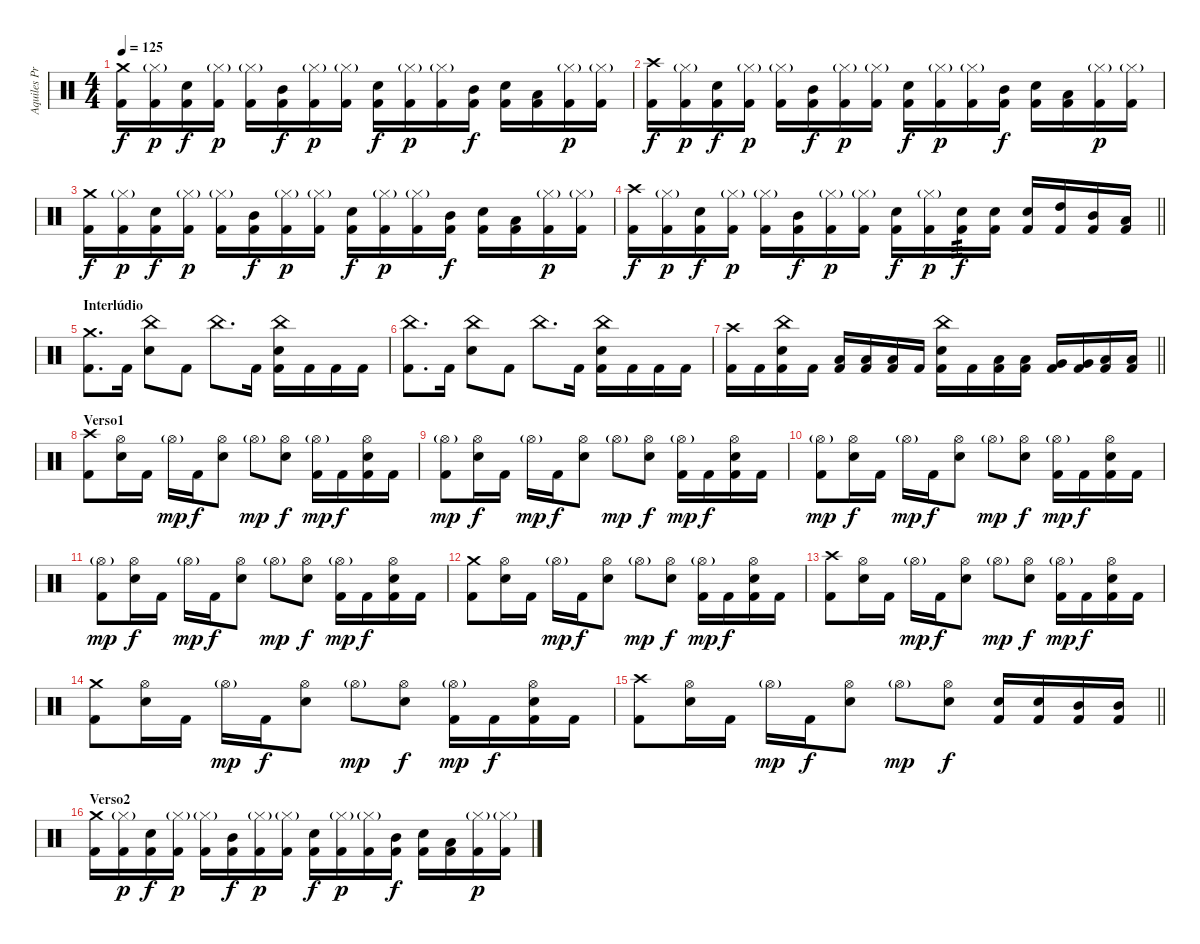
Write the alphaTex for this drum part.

\track ("Aquiles Priester" "Aquiles Pr") {instrument percussion}
\staff {score}
\articulation defaults
\ts (4 4)
\tempo 125
\clef neutral
\ks c
("Crash medium (hit)" "Kick (hit) 2").16{dy f} ("Hi-Hat (closed)"{g} "Kick (hit) 2").16{dy p} ("Electric Snare (hit)" "Kick (hit) 2").16{dy f} ("Hi-Hat (closed)"{g} "Kick (hit) 2").16{dy p} ("Hi-Hat (closed)"{g} "Kick (hit) 2").16 ("Mid Tom (hit)" "Kick (hit) 2").16{dy f} ("Hi-Hat (closed)"{g} "Kick (hit) 2").16{dy p} ("Hi-Hat (closed)"{g} "Kick (hit) 2").16 ("Electric Snare (hit)" "Kick (hit) 2").16{dy f} ("Hi-Hat (closed)"{g} "Kick (hit) 2").16{dy p} ("Hi-Hat (closed)"{g} "Kick (hit) 2").16 ("Mid Tom (hit)" "Kick (hit) 2").16{dy f} ("Electric Snare (hit)" "Kick (hit) 2").16 ("Low Tom (hit)" "Kick (hit) 2").16 ("Hi-Hat (closed)"{g} "Kick (hit) 2").16{dy p} ("Hi-Hat (closed)"{g} "Kick (hit) 2").16 |
("Crash high (hit)" "Kick (hit) 2").16{dy f} ("Hi-Hat (closed)"{g} "Kick (hit) 2").16{dy p} ("Electric Snare (hit)" "Kick (hit) 2").16{dy f} ("Hi-Hat (closed)"{g} "Kick (hit) 2").16{dy p} ("Hi-Hat (closed)"{g} "Kick (hit) 2").16 ("Mid Tom (hit)" "Kick (hit) 2").16{dy f} ("Hi-Hat (closed)"{g} "Kick (hit) 2").16{dy p} ("Hi-Hat (closed)"{g} "Kick (hit) 2").16 ("Electric Snare (hit)" "Kick (hit) 2").16{dy f} ("Hi-Hat (closed)"{g} "Kick (hit) 2").16{dy p} ("Hi-Hat (closed)"{g} "Kick (hit) 2").16 ("Mid Tom (hit)" "Kick (hit) 2").16{dy f} ("Electric Snare (hit)" "Kick (hit) 2").16 ("Low Tom (hit)" "Kick (hit) 2").16 ("Hi-Hat (closed)"{g} "Kick (hit) 2").16{dy p} ("Hi-Hat (closed)"{g} "Kick (hit) 2").16 |
("Crash medium (hit)" "Kick (hit) 2").16{dy f} ("Hi-Hat (closed)"{g} "Kick (hit) 2").16{dy p} ("Electric Snare (hit)" "Kick (hit) 2").16{dy f} ("Hi-Hat (closed)"{g} "Kick (hit) 2").16{dy p} ("Hi-Hat (closed)"{g} "Kick (hit) 2").16 ("Mid Tom (hit)" "Kick (hit) 2").16{dy f} ("Hi-Hat (closed)"{g} "Kick (hit) 2").16{dy p} ("Hi-Hat (closed)"{g} "Kick (hit) 2").16 ("Electric Snare (hit)" "Kick (hit) 2").16{dy f} ("Hi-Hat (closed)"{g} "Kick (hit) 2").16{dy p} ("Hi-Hat (closed)"{g} "Kick (hit) 2").16 ("Mid Tom (hit)" "Kick (hit) 2").16{dy f} ("Electric Snare (hit)" "Kick (hit) 2").16 ("Low Tom (hit)" "Kick (hit) 2").16 ("Hi-Hat (closed)"{g} "Kick (hit) 2").16{dy p} ("Hi-Hat (closed)"{g} "Kick (hit) 2").16 |
\barLineRight lightlight
("Crash high (hit)" "Kick (hit) 2").16{dy f} ("Hi-Hat (closed)"{g} "Kick (hit) 2").16{dy p} ("Electric Snare (hit)" "Kick (hit) 2").16{dy f} ("Hi-Hat (closed)"{g} "Kick (hit) 2").16{dy p} ("Hi-Hat (closed)"{g} "Kick (hit) 2").16 ("Mid Tom (hit)" "Kick (hit) 2").16{dy f} ("Hi-Hat (closed)"{g} "Kick (hit) 2").16{dy p} ("Hi-Hat (closed)"{g} "Kick (hit) 2").16 ("Electric Snare (hit)" "Kick (hit) 2").16{dy f} ("Hi-Hat (closed)"{g} "Kick (hit) 2").16{dy p} ("Electric Snare (hit)" "Kick (hit) 2").16{tp 3 dy f} ("Electric Snare (hit)" "Kick (hit) 2").16 ("Electric Snare (hit)" "Kick (hit) 2").16 ("High Tom (hit)" "Kick (hit) 2").16 ("Mid Tom (hit)" "Kick (hit) 2").16 ("Low Tom (hit)" "Kick (hit) 2").16 |
\section ("" "Interlúdio")
("Crash medium (hit)" "Kick (hit) 2").8{d} "Kick (hit) 2".16 ("China (hit)" "Electric Snare (hit)").8 "Kick (hit) 2".8 "China (hit)".8{d} "Kick (hit) 2".16 ("China (hit)" "Electric Snare (hit)" "Kick (hit) 2").16 "Kick (hit) 2".16 "Kick (hit) 2".16 "Kick (hit) 2".16 |
("China (hit)" "Kick (hit) 2").8{d} "Kick (hit) 2".16 ("China (hit)" "Electric Snare (hit)").8 "Kick (hit) 2".8 "China (hit)".8{d} "Kick (hit) 2".16 ("China (hit)" "Electric Snare (hit)" "Kick (hit) 2").16 "Kick (hit) 2".16 "Kick (hit) 2".16 "Kick (hit) 2".16 |
\barLineRight lightlight
("Crash high (hit)" "Kick (hit) 2").16 "Kick (hit) 2".16 ("China (hit)" "Electric Snare (hit)" "Kick (hit) 2").16 "Kick (hit) 2".16 ("Low Tom (hit)" "Kick (hit) 2").16 ("Low Tom (hit)" "Kick (hit) 2").16 ("Low Tom (hit)" "Kick (hit) 2").16 "Kick (hit) 2".16 ("China (hit)" "Electric Snare (hit)" "Kick (hit) 2").16 "Kick (hit) 2".16 ("Low Tom (hit)" "Kick (hit) 2").16 ("Low Tom (hit)" "Kick (hit) 2").16 ("Very Low Tom (hit)" "Kick (hit) 2").16 ("Very Low Tom (hit)" "Kick (hit) 2").16 ("Low Floor Tom (hit)" "Kick (hit) 2").16 ("Low Floor Tom (hit)" "Kick (hit) 2").16 |
\section ("" "Verso1")
("Crash high (hit)" "Kick (hit) 2").8 ("Hi-Hat (open)" "Electric Snare (hit)").16 "Kick (hit) 2".16 "Hi-Hat (open)"{g}.16{dy mp} "Kick (hit) 2".16{dy f} ("Hi-Hat (open)" "Electric Snare (hit)").8 "Hi-Hat (open)"{g}.8{dy mp} ("Hi-Hat (open)" "Electric Snare (hit)").8{dy f} ("Hi-Hat (open)"{g} "Kick (hit) 2").16{dy mp} "Kick (hit) 2".16{dy f} ("Hi-Hat (open)" "Electric Snare (hit)" "Kick (hit) 2").16 "Kick (hit) 2".16 |
("Hi-Hat (open)"{g} "Kick (hit) 2").8{dy mp} ("Hi-Hat (open)" "Electric Snare (hit)").16{dy f} "Kick (hit) 2".16 "Hi-Hat (open)"{g}.16{dy mp} "Kick (hit) 2".16{dy f} ("Hi-Hat (open)" "Electric Snare (hit)").8 "Hi-Hat (open)"{g}.8{dy mp} ("Hi-Hat (open)" "Electric Snare (hit)").8{dy f} ("Hi-Hat (open)"{g} "Kick (hit) 2").16{dy mp} "Kick (hit) 2".16{dy f} ("Hi-Hat (open)" "Electric Snare (hit)" "Kick (hit) 2").16 "Kick (hit) 2".16 |
("Hi-Hat (open)"{g} "Kick (hit) 2").8{dy mp} ("Hi-Hat (open)" "Electric Snare (hit)").16{dy f} "Kick (hit) 2".16 "Hi-Hat (open)"{g}.16{dy mp} "Kick (hit) 2".16{dy f} ("Hi-Hat (open)" "Electric Snare (hit)").8 "Hi-Hat (open)"{g}.8{dy mp} ("Hi-Hat (open)" "Electric Snare (hit)").8{dy f} ("Hi-Hat (open)"{g} "Kick (hit) 2").16{dy mp} "Kick (hit) 2".16{dy f} ("Hi-Hat (open)" "Electric Snare (hit)" "Kick (hit) 2").16 "Kick (hit) 2".16 |
("Hi-Hat (open)"{g} "Kick (hit) 2").8{dy mp} ("Hi-Hat (open)" "Electric Snare (hit)").16{dy f} "Kick (hit) 2".16 "Hi-Hat (open)"{g}.16{dy mp} "Kick (hit) 2".16{dy f} ("Hi-Hat (open)" "Electric Snare (hit)").8 "Hi-Hat (open)"{g}.8{dy mp} ("Hi-Hat (open)" "Electric Snare (hit)").8{dy f} ("Hi-Hat (open)"{g} "Kick (hit) 2").16{dy mp} "Kick (hit) 2".16{dy f} ("Hi-Hat (open)" "Electric Snare (hit)" "Kick (hit) 2").16 "Kick (hit) 2".16 |
("Crash medium (hit)" "Kick (hit) 2").8 ("Hi-Hat (open)" "Electric Snare (hit)").16 "Kick (hit) 2".16 "Hi-Hat (open)"{g}.16{dy mp} "Kick (hit) 2".16{dy f} ("Hi-Hat (open)" "Electric Snare (hit)").8 "Hi-Hat (open)"{g}.8{dy mp} ("Hi-Hat (open)" "Electric Snare (hit)").8{dy f} ("Hi-Hat (open)"{g} "Kick (hit) 2").16{dy mp} "Kick (hit) 2".16{dy f} ("Hi-Hat (open)" "Electric Snare (hit)" "Kick (hit) 2").16 "Kick (hit) 2".16 |
("Crash high (hit)" "Kick (hit) 2").8 ("Hi-Hat (open)" "Electric Snare (hit)").16 "Kick (hit) 2".16 "Hi-Hat (open)"{g}.16{dy mp} "Kick (hit) 2".16{dy f} ("Hi-Hat (open)" "Electric Snare (hit)").8 "Hi-Hat (open)"{g}.8{dy mp} ("Hi-Hat (open)" "Electric Snare (hit)").8{dy f} ("Hi-Hat (open)"{g} "Kick (hit) 2").16{dy mp} "Kick (hit) 2".16{dy f} ("Hi-Hat (open)" "Electric Snare (hit)" "Kick (hit) 2").16 "Kick (hit) 2".16 |
("Crash medium (hit)" "Kick (hit) 2").8 ("Hi-Hat (open)" "Electric Snare (hit)").16 "Kick (hit) 2".16 "Hi-Hat (open)"{g}.16{dy mp} "Kick (hit) 2".16{dy f} ("Hi-Hat (open)" "Electric Snare (hit)").8 "Hi-Hat (open)"{g}.8{dy mp} ("Hi-Hat (open)" "Electric Snare (hit)").8{dy f} ("Hi-Hat (open)"{g} "Kick (hit) 2").16{dy mp} "Kick (hit) 2".16{dy f} ("Hi-Hat (open)" "Electric Snare (hit)" "Kick (hit) 2").16 "Kick (hit) 2".16 |
\barLineRight lightlight
("Crash high (hit)" "Kick (hit) 2").8 ("Hi-Hat (open)" "Electric Snare (hit)").16 "Kick (hit) 2".16 "Hi-Hat (open)"{g}.16{dy mp} "Kick (hit) 2".16{dy f} ("Hi-Hat (open)" "Electric Snare (hit)").8 "Hi-Hat (open)"{g}.8{dy mp} ("Hi-Hat (open)" "Electric Snare (hit)").8{dy f} ("Electric Snare (hit)" "Kick (hit) 2").16 ("Electric Snare (hit)" "Kick (hit) 2").16 ("Mid Tom (hit)" "Kick (hit) 2").16 ("Mid Tom (hit)" "Kick (hit) 2").16 |
\section ("" "Verso2")
("Crash medium (hit)" "Kick (hit) 2").16 ("Hi-Hat (closed)"{g} "Kick (hit) 2").16{dy p} ("Electric Snare (hit)" "Kick (hit) 2").16{dy f} ("Hi-Hat (closed)"{g} "Kick (hit) 2").16{dy p} ("Hi-Hat (closed)"{g} "Kick (hit) 2").16 ("Mid Tom (hit)" "Kick (hit) 2").16{dy f} ("Hi-Hat (closed)"{g} "Kick (hit) 2").16{dy p} ("Hi-Hat (closed)"{g} "Kick (hit) 2").16 ("Electric Snare (hit)" "Kick (hit) 2").16{dy f} ("Hi-Hat (closed)"{g} "Kick (hit) 2").16{dy p} ("Hi-Hat (closed)"{g} "Kick (hit) 2").16 ("Mid Tom (hit)" "Kick (hit) 2").16{dy f} ("Electric Snare (hit)" "Kick (hit) 2").16 ("Low Tom (hit)" "Kick (hit) 2").16 ("Hi-Hat (closed)"{g} "Kick (hit) 2").16{dy p} ("Hi-Hat (closed)"{g} "Kick (hit) 2").16
